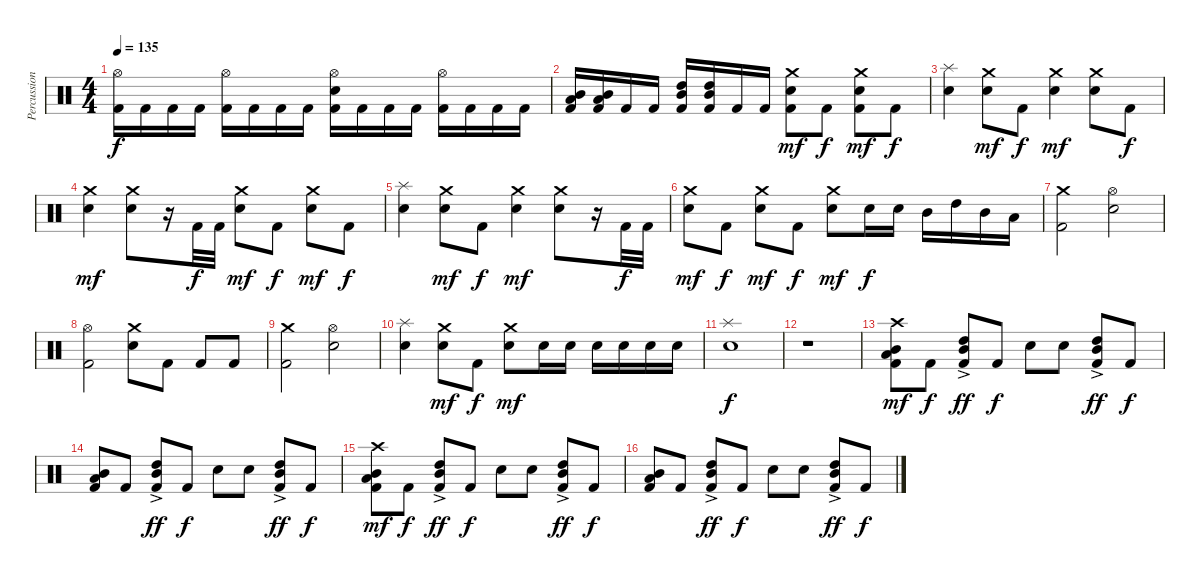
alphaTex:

\track ("Percussion" "Percussion") {instrument percussion}
\staff {score}
\articulation defaults
\ts (4 4)
\tempo 135
\clef neutral
\ks c
("Hi-Hat (open)" "Kick (hit) 2").16{dy f} "Kick (hit) 2".16 "Kick (hit) 2".16 "Kick (hit) 2".16 ("Hi-Hat (open)" "Kick (hit) 2").16 "Kick (hit) 2".16 "Kick (hit) 2".16 "Kick (hit) 2".16 ("Hi-Hat (open)" "Snare (hit) 2" "Kick (hit) 2").16 "Kick (hit) 2".16 "Kick (hit) 2".16 "Kick (hit) 2".16 ("Hi-Hat (open)" "Kick (hit) 2").16 "Kick (hit) 2".16 "Kick (hit) 2".16 "Kick (hit) 2".16 |
("Mid Tom (hit)" "Low Tom (hit)" "Kick (hit) 2").16 ("Mid Tom (hit)" "Low Tom (hit)" "Kick (hit) 2").16 "Kick (hit) 2".16 "Kick (hit) 2".16 ("High Tom (hit)" "Mid Tom (hit)" "Kick (hit) 2").16 ("High Tom (hit)" "Mid Tom (hit)" "Kick (hit) 2").16 "Kick (hit) 2".16 "Kick (hit) 2".16 ("Crash medium (hit)" "Snare (hit) 2" "Kick (hit) 2").8{dy mf} "Kick (hit) 2".8{dy f} ("Crash medium (hit)" "Snare (hit) 2" "Kick (hit) 2").8{dy mf} "Kick (hit) 2".8{dy f} |
("Splash (hit)" "Snare (hit) 2").4 ("Crash medium (hit)" "Snare (hit) 2").8{dy mf} "Kick (hit) 2".8{dy f} ("Crash medium (hit)" "Snare (hit) 2").4{dy mf} ("Crash medium (hit)" "Snare (hit) 2").8 "Kick (hit) 2".8{dy f} |
("Crash medium (hit)" "Snare (hit) 2").4{dy mf} ("Crash medium (hit)" "Snare (hit) 2").8 r.16 "Kick (hit) 2".32{dy f} "Kick (hit) 2".32 ("Crash medium (hit)" "Snare (hit) 2").8{dy mf} "Kick (hit) 2".8{dy f} ("Crash medium (hit)" "Snare (hit) 2").8{dy mf} "Kick (hit) 2".8{dy f} |
("Splash (hit)" "Snare (hit) 2").4 ("Crash medium (hit)" "Snare (hit) 2").8{dy mf} "Kick (hit) 2".8{dy f} ("Crash medium (hit)" "Snare (hit) 2").4{dy mf} ("Crash medium (hit)" "Snare (hit) 2").8 r.16 "Kick (hit) 2".32{dy f} "Kick (hit) 2".32 |
("Crash medium (hit)" "Snare (hit) 2").8{dy mf} "Kick (hit) 2".8{dy f} ("Crash medium (hit)" "Snare (hit) 2").8{dy mf} "Kick (hit) 2".8{dy f} ("Crash medium (hit)" "Snare (hit) 2").8{dy mf} "Snare (hit) 2".16{dy f} "Snare (hit) 2".16 "Mid Tom (hit)".16 "High Tom (hit)".16 "Mid Tom (hit)".16 "Low Tom (hit)".16 |
("Crash medium (hit)" "Kick (hit) 2").2 ("Hi-Hat (open)" "Snare (hit) 2").2 |
("Hi-Hat (open)" "Kick (hit) 2").2 ("Crash medium (hit)" "Snare (hit) 2").8 "Kick (hit) 2".8 "Kick (hit) 2".8 "Kick (hit) 2".8 |
("Crash medium (hit)" "Kick (hit) 2").2 ("Hi-Hat (open)" "Snare (hit) 2").2 |
("Splash (hit)" "Snare (hit) 2").4 ("Crash medium (hit)" "Snare (hit) 2").8{dy mf} "Kick (hit) 2".8{dy f} ("Crash medium (hit)" "Snare (hit) 2").8{dy mf} "Snare (hit) 2".16 "Snare (hit) 2".16 "Snare (hit) 2".16 "Snare (hit) 2".16 "Snare (hit) 2".16 "Snare (hit) 2".16 |
("Splash (hit)" "Snare (hit) 2").1{dy f} |
r.1 |
("Crash high (hit)" "Mid Tom (hit)" "Low Tom (hit)" "Kick (hit) 2").8{dy mf} "Kick (hit) 2".8{dy f} ("High Tom (hit)"{ac} "Mid Tom (hit)"{ac} "Kick (hit) 2").8{dy ff} "Kick (hit) 2".8{dy f} "Snare (hit) 2".8 "Snare (hit) 2".8 ("High Tom (hit)"{ac} "Mid Tom (hit)"{ac} "Kick (hit) 2").8{dy ff} "Kick (hit) 2".8{dy f} |
("Mid Tom (hit)" "Low Tom (hit)" "Kick (hit) 2").8 "Kick (hit) 2".8 ("High Tom (hit)"{ac} "Mid Tom (hit)"{ac} "Kick (hit) 2").8{dy ff} "Kick (hit) 2".8{dy f} "Snare (hit) 2".8 "Snare (hit) 2".8 ("High Tom (hit)"{ac} "Mid Tom (hit)"{ac} "Kick (hit) 2").8{dy ff} "Kick (hit) 2".8{dy f} |
("Crash high (hit)" "Mid Tom (hit)" "Low Tom (hit)" "Kick (hit) 2").8{dy mf} "Kick (hit) 2".8{dy f} ("High Tom (hit)"{ac} "Mid Tom (hit)"{ac} "Kick (hit) 2").8{dy ff} "Kick (hit) 2".8{dy f} "Snare (hit) 2".8 "Snare (hit) 2".8 ("High Tom (hit)"{ac} "Mid Tom (hit)"{ac} "Kick (hit) 2").8{dy ff} "Kick (hit) 2".8{dy f} |
("Mid Tom (hit)" "Low Tom (hit)" "Kick (hit) 2").8 "Kick (hit) 2".8 ("High Tom (hit)"{ac} "Mid Tom (hit)"{ac} "Kick (hit) 2").8{dy ff} "Kick (hit) 2".8{dy f} "Snare (hit) 2".8 "Snare (hit) 2".8 ("High Tom (hit)"{ac} "Mid Tom (hit)"{ac} "Kick (hit) 2").8{dy ff} "Kick (hit) 2".8{dy f}
